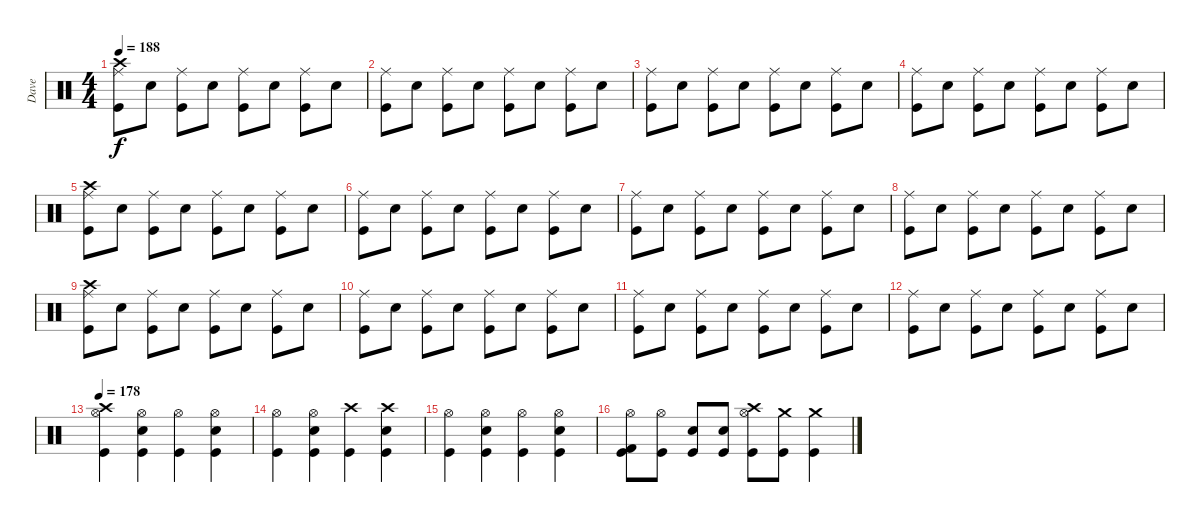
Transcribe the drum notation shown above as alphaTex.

\track ("Dave" "Dave") {instrument percussion}
\staff {score}
\articulation defaults
\ts (4 4)
\tempo 188
\clef neutral
\ks c
("Crash high (hit)" "Ride (middle)" "Kick (hit)").8{dy f} "Snare (hit) 2".8 ("Ride (middle)" "Kick (hit)").8 "Snare (hit) 2".8 ("Ride (middle)" "Kick (hit)").8 "Snare (hit) 2".8 ("Ride (middle)" "Kick (hit)").8 "Snare (hit) 2".8 |
("Ride (middle)" "Kick (hit)").8 "Snare (hit) 2".8 ("Ride (middle)" "Kick (hit)").8 "Snare (hit) 2".8 ("Ride (middle)" "Kick (hit)").8 "Snare (hit) 2".8 ("Ride (middle)" "Kick (hit)").8 "Snare (hit) 2".8 |
("Ride (middle)" "Kick (hit)").8 "Snare (hit) 2".8 ("Ride (middle)" "Kick (hit)").8 "Snare (hit) 2".8 ("Ride (middle)" "Kick (hit)").8 "Snare (hit) 2".8 ("Ride (middle)" "Kick (hit)").8 "Snare (hit) 2".8 |
("Ride (middle)" "Kick (hit)").8 "Snare (hit) 2".8 ("Ride (middle)" "Kick (hit)").8 "Snare (hit) 2".8 ("Ride (middle)" "Kick (hit)").8 "Snare (hit) 2".8 ("Ride (middle)" "Kick (hit)").8 "Snare (hit) 2".8 |
("Crash high (hit)" "Ride (middle)" "Kick (hit)").8 "Snare (hit) 2".8 ("Ride (middle)" "Kick (hit)").8 "Snare (hit) 2".8 ("Ride (middle)" "Kick (hit)").8 "Snare (hit) 2".8 ("Ride (middle)" "Kick (hit)").8 "Snare (hit) 2".8 |
("Ride (middle)" "Kick (hit)").8 "Snare (hit) 2".8 ("Ride (middle)" "Kick (hit)").8 "Snare (hit) 2".8 ("Ride (middle)" "Kick (hit)").8 "Snare (hit) 2".8 ("Ride (middle)" "Kick (hit)").8 "Snare (hit) 2".8 |
("Ride (middle)" "Kick (hit)").8 "Snare (hit) 2".8 ("Ride (middle)" "Kick (hit)").8 "Snare (hit) 2".8 ("Ride (middle)" "Kick (hit)").8 "Snare (hit) 2".8 ("Ride (middle)" "Kick (hit)").8 "Snare (hit) 2".8 |
("Ride (middle)" "Kick (hit)").8 "Snare (hit) 2".8 ("Ride (middle)" "Kick (hit)").8 "Snare (hit) 2".8 ("Ride (middle)" "Kick (hit)").8 "Snare (hit) 2".8 ("Ride (middle)" "Kick (hit)").8 "Snare (hit) 2".8 |
("Crash high (hit)" "Ride (middle)" "Kick (hit)").8 "Snare (hit) 2".8 ("Ride (middle)" "Kick (hit)").8 "Snare (hit) 2".8 ("Ride (middle)" "Kick (hit)").8 "Snare (hit) 2".8 ("Ride (middle)" "Kick (hit)").8 "Snare (hit) 2".8 |
("Ride (middle)" "Kick (hit)").8 "Snare (hit) 2".8 ("Ride (middle)" "Kick (hit)").8 "Snare (hit) 2".8 ("Ride (middle)" "Kick (hit)").8 "Snare (hit) 2".8 ("Ride (middle)" "Kick (hit)").8 "Snare (hit) 2".8 |
("Ride (middle)" "Kick (hit)").8 "Snare (hit) 2".8 ("Ride (middle)" "Kick (hit)").8 "Snare (hit) 2".8 ("Ride (middle)" "Kick (hit)").8 "Snare (hit) 2".8 ("Ride (middle)" "Kick (hit)").8 "Snare (hit) 2".8 |
("Ride (middle)" "Kick (hit)").8 "Snare (hit) 2".8 ("Ride (middle)" "Kick (hit)").8 "Snare (hit) 2".8 ("Ride (middle)" "Kick (hit)").8 "Snare (hit) 2".8 ("Ride (middle)" "Kick (hit)").8 "Snare (hit) 2".8 |
\tempo 178
("Hi-Hat (open)" "Crash high (hit)" "Kick (hit)").4 ("Hi-Hat (open)" "Snare (hit) 2" "Kick (hit)").4 ("Hi-Hat (open)" "Kick (hit)").4 ("Hi-Hat (open)" "Snare (hit) 2" "Kick (hit)").4 |
("Hi-Hat (open)" "Kick (hit)").4 ("Hi-Hat (open)" "Snare (hit) 2" "Kick (hit)").4 ("Crash high (hit)" "Kick (hit)").4 ("Crash high (hit)" "Snare (hit) 2" "Kick (hit)").4 |
("Hi-Hat (open)" "Kick (hit)").4 ("Hi-Hat (open)" "Snare (hit) 2" "Kick (hit)").4 ("Hi-Hat (open)" "Kick (hit)").4 ("Hi-Hat (open)" "Snare (hit) 2" "Kick (hit)").4 |
("Hi-Hat (open)" "Kick (hit) 2" "Kick (hit)").8 ("Hi-Hat (open)" "Kick (hit)").8 ("Snare (hit) 2" "Kick (hit)").8 ("Snare (hit) 2" "Kick (hit)").8 ("Crash high (hit)" "Hi-Hat (open)" "Kick (hit)").8 ("Crash medium (hit)" "Kick (hit)").8 ("Crash medium (hit)" "Kick (hit)").4
